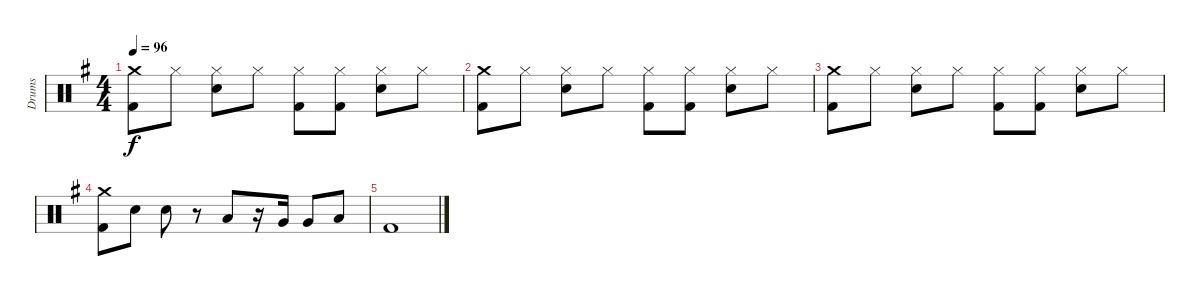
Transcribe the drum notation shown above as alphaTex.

\track ("Drums" "Drums") {instrument percussion}
\staff {score}
\articulation defaults
\ts (4 4)
\tempo 96
\clef neutral
\ks g
("Crash medium (hit)" "Kick (hit) 2").8{dy f} "Hi-Hat (closed)".8 ("Hi-Hat (closed)" "Snare (hit) 2").8 "Hi-Hat (closed)".8 ("Hi-Hat (closed)" "Kick (hit) 2").8 ("Hi-Hat (closed)" "Kick (hit) 2").8 ("Hi-Hat (closed)" "Snare (hit) 2").8 "Hi-Hat (closed)".8 |
("Crash medium (hit)" "Kick (hit) 2").8 "Hi-Hat (closed)".8 ("Hi-Hat (closed)" "Snare (hit) 2").8 "Hi-Hat (closed)".8 ("Hi-Hat (closed)" "Kick (hit) 2").8 ("Hi-Hat (closed)" "Kick (hit) 2").8 ("Hi-Hat (closed)" "Snare (hit) 2").8 "Hi-Hat (closed)".8 |
("Crash medium (hit)" "Kick (hit) 2").8 "Hi-Hat (closed)".8 ("Hi-Hat (closed)" "Snare (hit) 2").8 "Hi-Hat (closed)".8 ("Hi-Hat (closed)" "Kick (hit) 2").8 ("Hi-Hat (closed)" "Kick (hit) 2").8 ("Hi-Hat (closed)" "Snare (hit) 2").8 "Hi-Hat (closed)".8 |
("Crash medium (hit)" "Kick (hit) 2").8 "Snare (hit) 2".8 "Snare (hit) 2".8 r.8 "Low Tom (hit)".8 r.16 "Very Low Tom (hit)".16 "Very Low Tom (hit)".8 "Low Tom (hit)".8 |
"Kick (hit) 2".1
